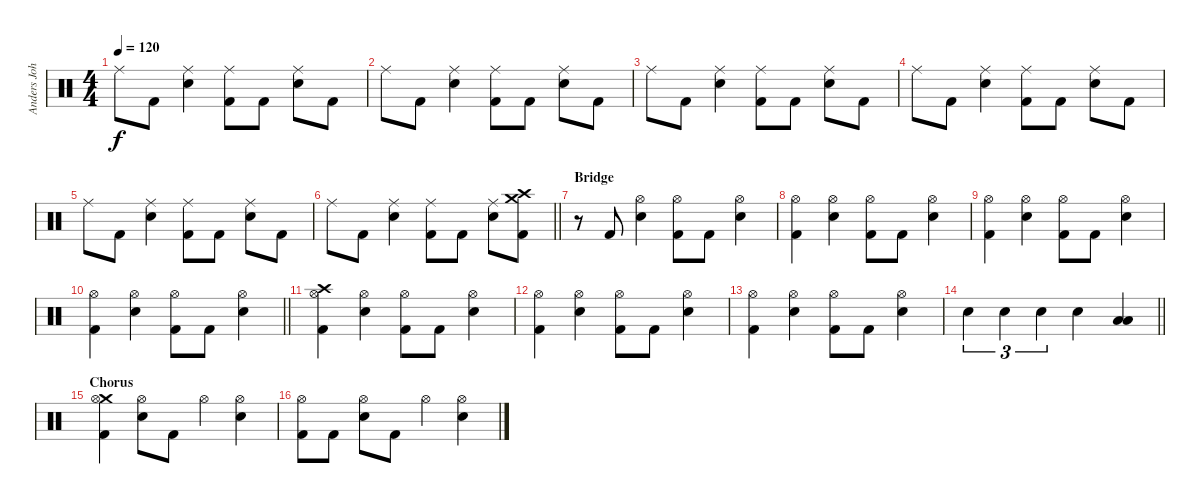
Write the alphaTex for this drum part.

\track ("Anders Johansson" "Anders Joh") {instrument percussion}
\staff {score}
\articulation defaults
\ts (4 4)
\tempo 120
\clef neutral
\ks c "Ride (middle)".8{dy f} "Kick (hit) 2".8
("Ride (middle)" "Snare (hit) 2").4 ("Ride (middle)" "Kick (hit) 2").8 "Kick (hit) 2".8 ("Ride (middle)" "Snare (hit) 2").8 "Kick (hit) 2".8 |
"Ride (middle)".8 "Kick (hit) 2".8 ("Ride (middle)" "Snare (hit) 2").4 ("Ride (middle)" "Kick (hit) 2").8 "Kick (hit) 2".8 ("Ride (middle)" "Snare (hit) 2").8 "Kick (hit) 2".8 |
"Ride (middle)".8 "Kick (hit) 2".8 ("Ride (middle)" "Snare (hit) 2").4 ("Ride (middle)" "Kick (hit) 2").8 "Kick (hit) 2".8 ("Ride (middle)" "Snare (hit) 2").8 "Kick (hit) 2".8 |
"Ride (middle)".8 "Kick (hit) 2".8 ("Ride (middle)" "Snare (hit) 2").4 ("Ride (middle)" "Kick (hit) 2").8 "Kick (hit) 2".8 ("Ride (middle)" "Snare (hit) 2").8 "Kick (hit) 2".8 |
"Ride (middle)".8 "Kick (hit) 2".8 ("Ride (middle)" "Snare (hit) 2").4 ("Ride (middle)" "Kick (hit) 2").8 "Kick (hit) 2".8 ("Ride (middle)" "Snare (hit) 2").8 "Kick (hit) 2".8 |
\barLineRight lightlight "Ride (middle)".8 "Kick (hit) 2".8
("Ride (middle)" "Snare (hit) 2").4 ("Ride (middle)" "Kick (hit) 2").8 "Kick (hit) 2".8 ("Ride (middle)" "Snare (hit) 2").8 ("Crash high (hit)" "Crash medium (hit)" "Kick (hit) 2").8 |
\section ("" "Bridge")
r.8 "Kick (hit) 2".8 ("Hi-Hat (open)" "Snare (hit) 2").4 ("Hi-Hat (open)" "Kick (hit) 2").8 "Kick (hit) 2".8 ("Hi-Hat (open)" "Snare (hit) 2").4 |
("Hi-Hat (open)" "Kick (hit) 2").4 ("Hi-Hat (open)" "Snare (hit) 2").4 ("Hi-Hat (open)" "Kick (hit) 2").8 "Kick (hit) 2".8 ("Hi-Hat (open)" "Snare (hit) 2").4 |
("Hi-Hat (open)" "Kick (hit) 2").4 ("Hi-Hat (open)" "Snare (hit) 2").4 ("Hi-Hat (open)" "Kick (hit) 2").8 "Kick (hit) 2".8 ("Hi-Hat (open)" "Snare (hit) 2").4 |
\barLineRight lightlight
("Hi-Hat (open)" "Kick (hit) 2").4 ("Hi-Hat (open)" "Snare (hit) 2").4 ("Hi-Hat (open)" "Kick (hit) 2").8 "Kick (hit) 2".8 ("Hi-Hat (open)" "Snare (hit) 2").4 |
("Crash high (hit)" "Hi-Hat (open)" "Kick (hit) 2").4 ("Hi-Hat (open)" "Snare (hit) 2").4 ("Hi-Hat (open)" "Kick (hit) 2").8 "Kick (hit) 2".8 ("Hi-Hat (open)" "Snare (hit) 2").4 |
("Hi-Hat (open)" "Kick (hit) 2").4 ("Hi-Hat (open)" "Snare (hit) 2").4 ("Hi-Hat (open)" "Kick (hit) 2").8 "Kick (hit) 2".8 ("Hi-Hat (open)" "Snare (hit) 2").4 |
("Hi-Hat (open)" "Kick (hit) 2").4 ("Hi-Hat (open)" "Snare (hit) 2").4 ("Hi-Hat (open)" "Kick (hit) 2").8 "Kick (hit) 2".8 ("Hi-Hat (open)" "Snare (hit) 2").4 |
\barLineRight lightlight "Snare (hit) 2".4{tu (3 2)} "Snare (hit) 2".4{tu (3 2)} "Snare (hit) 2".4{tu (3 2)} "Snare (hit) 2".4
("Low Tom (hit)" "Low Floor Tom (hit)").4 |
\section ("" "Chorus")
("Crash medium (hit)" "Hi-Hat (open)" "Kick (hit) 2").4 ("Hi-Hat (open)" "Snare (hit) 2").8 "Kick (hit) 2".8 "Hi-Hat (open)".4 ("Hi-Hat (open)" "Snare (hit) 2").4 |
("Hi-Hat (open)" "Kick (hit) 2").8 "Kick (hit) 2".8 ("Hi-Hat (open)" "Snare (hit) 2").8 "Kick (hit) 2".8 "Hi-Hat (open)".4 ("Hi-Hat (open)" "Snare (hit) 2").4
